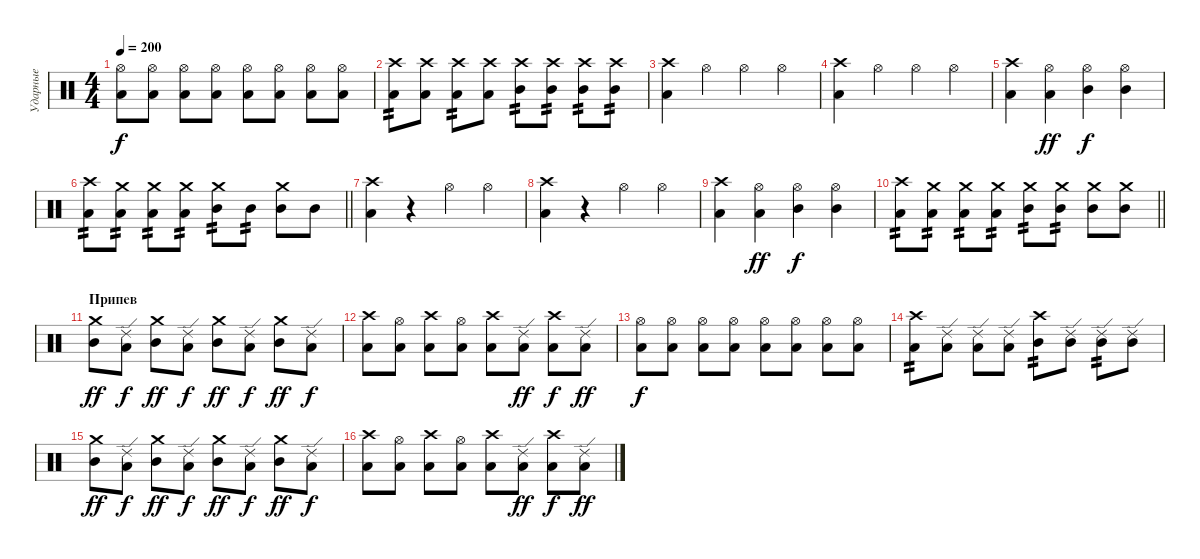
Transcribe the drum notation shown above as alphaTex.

\track ("Ударные" "Ударные") {instrument percussion}
\staff {score}
\articulation defaults
\ts (4 4)
\tempo 200
\clef neutral
\ks c
("Hi-Hat (open)" "Low Tom (hit)").8{dy f} ("Hi-Hat (open)" "Low Tom (hit)").8 ("Hi-Hat (open)" "Low Tom (hit)").8 ("Hi-Hat (open)" "Low Tom (hit)").8 ("Hi-Hat (open)" "Low Tom (hit)").8 ("Hi-Hat (open)" "Low Tom (hit)").8 ("Hi-Hat (open)" "Low Tom (hit)").8 ("Hi-Hat (open)" "Low Tom (hit)").8 |
("Crash high (hit)" "Low Tom (hit)").8{tp 2} ("Crash high (hit)" "Low Tom (hit)").8 ("Crash high (hit)" "Low Tom (hit)").8{tp 2} ("Crash high (hit)" "Low Tom (hit)").8 ("Crash high (hit)" "Mid Tom (hit)").8{tp 2} ("Crash high (hit)" "Mid Tom (hit)").8{tp 2} ("Crash high (hit)" "Mid Tom (hit)").8{tp 2} ("Crash high (hit)" "Mid Tom (hit)").8{tp 2} |
("Crash high (hit)" "Low Tom (hit)").4 "Hi-Hat (open)".4 "Hi-Hat (open)".4 "Hi-Hat (open)".4 |
("Crash high (hit)" "Low Tom (hit)").4 "Hi-Hat (open)".4 "Hi-Hat (open)".4 "Hi-Hat (open)".4 |
("Crash high (hit)" "Low Tom (hit)").4 ("Hi-Hat (open)" "Low Floor Tom (hit)").4{dy ff} ("Hi-Hat (open)" "Mid Tom (hit)").4{dy f} ("Hi-Hat (open)" "Mid Tom (hit)").4 |
\barLineRight lightlight
("Crash high (hit)" "Low Tom (hit)").8{tp 2} ("Crash medium (hit)" "Low Tom (hit)").8{tp 2} ("Crash medium (hit)" "Low Tom (hit)").8{tp 2} ("Crash medium (hit)" "Low Tom (hit)").8{tp 2} ("Crash medium (hit)" "Mid Tom (hit)").8{tp 2} "Mid Tom (hit)".8{tp 2} ("Crash medium (hit)" "Mid Tom (hit)").8 "Mid Tom (hit)".8 |
("Crash high (hit)" "Low Tom (hit)").4 r.4 "Hi-Hat (open)".4 "Hi-Hat (open)".4 |
("Crash high (hit)" "Low Tom (hit)").4 r.4 "Hi-Hat (open)".4 "Hi-Hat (open)".4 |
("Crash high (hit)" "Low Tom (hit)").4 ("Hi-Hat (open)" "Low Floor Tom (hit)").4{dy ff} ("Hi-Hat (open)" "Mid Tom (hit)").4{dy f} ("Hi-Hat (open)" "Mid Tom (hit)").4 |
\barLineRight lightlight
("Crash high (hit)" "Low Tom (hit)").8{tp 2} ("Crash medium (hit)" "Low Tom (hit)").8{tp 2} ("Crash medium (hit)" "Low Tom (hit)").8{tp 2} ("Crash medium (hit)" "Low Tom (hit)").8{tp 2} ("Crash medium (hit)" "Mid Tom (hit)").8{tp 2} ("Crash medium (hit)" "Mid Tom (hit)").8{tp 2} ("Crash medium (hit)" "Mid Tom (hit)").8 ("Crash medium (hit)" "Mid Tom (hit)").8 |
\section ("" "Припев")
("Crash medium (hit)" "Mid Tom (hit)").8{dy ff} ("Ride (edge) 2" "Low Tom (hit)").8{dy f} ("Crash medium (hit)" "Mid Tom (hit)").8{dy ff} ("Ride (edge) 2" "Low Tom (hit)").8{dy f} ("Crash medium (hit)" "Mid Tom (hit)").8{dy ff} ("Ride (edge) 2" "Low Tom (hit)").8{dy f} ("Crash medium (hit)" "Mid Tom (hit)").8{dy ff} ("Ride (edge) 2" "Low Tom (hit)").8{dy f} |
("Crash high (hit)" "Low Tom (hit)").8 ("Hi-Hat (open)" "Low Floor Tom (hit)").8 ("Crash high (hit)" "Low Tom (hit)").8 ("Hi-Hat (open)" "Low Floor Tom (hit)").8 ("Crash high (hit)" "Low Tom (hit)").8 ("Ride (edge) 2" "Low Floor Tom (hit)").8{dy ff} ("Crash high (hit)" "Low Tom (hit)").8{dy f} ("Ride (edge) 2" "Low Floor Tom (hit)").8{dy ff} |
("Hi-Hat (open)" "Low Tom (hit)").8{dy f} ("Hi-Hat (open)" "Low Tom (hit)").8 ("Hi-Hat (open)" "Low Tom (hit)").8 ("Hi-Hat (open)" "Low Tom (hit)").8 ("Hi-Hat (open)" "Low Tom (hit)").8 ("Hi-Hat (open)" "Low Tom (hit)").8 ("Hi-Hat (open)" "Low Tom (hit)").8 ("Hi-Hat (open)" "Low Tom (hit)").8 |
("Crash high (hit)" "Low Tom (hit)").8{tp 2} ("Ride (edge) 2" "Low Tom (hit)").8 ("Ride (edge) 2" "Low Tom (hit)").8 ("Ride (edge) 2" "Low Tom (hit)").8 ("Crash high (hit)" "Mid Tom (hit)").8{tp 2} ("Ride (edge) 2" "Mid Tom (hit)").8 ("Ride (edge) 2" "Mid Tom (hit)").8{tp 2} ("Ride (edge) 2" "Mid Tom (hit)").8 |
("Crash medium (hit)" "Mid Tom (hit)").8{dy ff} ("Ride (edge) 2" "Low Tom (hit)").8{dy f} ("Crash medium (hit)" "Mid Tom (hit)").8{dy ff} ("Ride (edge) 2" "Low Tom (hit)").8{dy f} ("Crash medium (hit)" "Mid Tom (hit)").8{dy ff} ("Ride (edge) 2" "Low Tom (hit)").8{dy f} ("Crash medium (hit)" "Mid Tom (hit)").8{dy ff} ("Ride (edge) 2" "Low Tom (hit)").8{dy f} |
("Crash high (hit)" "Low Tom (hit)").8 ("Hi-Hat (open)" "Low Floor Tom (hit)").8 ("Crash high (hit)" "Low Tom (hit)").8 ("Hi-Hat (open)" "Low Floor Tom (hit)").8 ("Crash high (hit)" "Low Tom (hit)").8 ("Ride (edge) 2" "Low Floor Tom (hit)").8{dy ff} ("Crash high (hit)" "Low Tom (hit)").8{dy f} ("Ride (edge) 2" "Low Floor Tom (hit)").8{dy ff}
